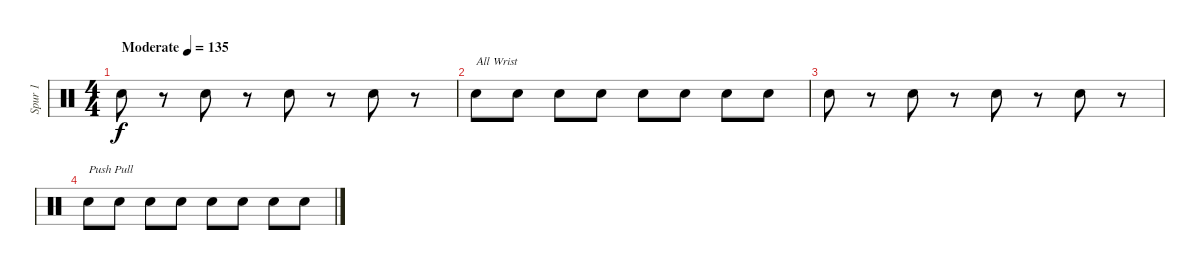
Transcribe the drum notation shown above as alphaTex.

\track ("Spur 1" "Spur 1") {instrument percussion}
\staff {score}
\articulation defaults
\ts (4 4)
\tempo (135 "Moderate")
\clef neutral
\ks c "Snare (hit) 2".8{dy f}
r.8 "Snare (hit) 2".8 r.8 "Snare (hit) 2".8 r.8 "Snare (hit) 2".8 r.8 |
"Snare (hit) 2".8{txt "All Wrist "} "Snare (hit) 2".8 "Snare (hit) 2".8 "Snare (hit) 2".8 "Snare (hit) 2".8 "Snare (hit) 2".8 "Snare (hit) 2".8 "Snare (hit) 2".8 |
"Snare (hit) 2".8 r.8 "Snare (hit) 2".8 r.8 "Snare (hit) 2".8 r.8 "Snare (hit) 2".8 r.8 |
"Snare (hit) 2".8{txt "Push Pull"} "Snare (hit) 2".8 "Snare (hit) 2".8 "Snare (hit) 2".8 "Snare (hit) 2".8 "Snare (hit) 2".8 "Snare (hit) 2".8 "Snare (hit) 2".8
